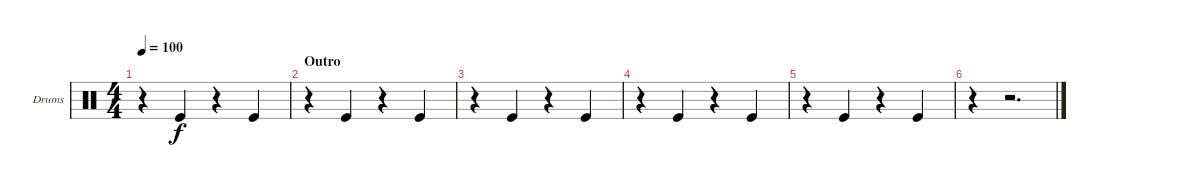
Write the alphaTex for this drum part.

\bracketExtendMode groupsimilarinstruments
\firstSystemTrackNameOrientation horizontal
\otherSystemsTrackNameOrientation horizontal
\track ("Drumkit" "Drums") {instrument percussion}
\staff {score}
\articulation defaults
\ts (4 4)
\tempo 100
\clef neutral
\ks c
r.4{dy f} "Kick (hit)".4 r.4 "Kick (hit)".4 |
\section ("" "Outro")
r.4 "Kick (hit)".4 r.4 "Kick (hit)".4 |
r.4 "Kick (hit)".4 r.4 "Kick (hit)".4 |
r.4 "Kick (hit)".4 r.4 "Kick (hit)".4 |
r.4 "Kick (hit)".4 r.4 "Kick (hit)".4 |
r.4 r.2{d}
